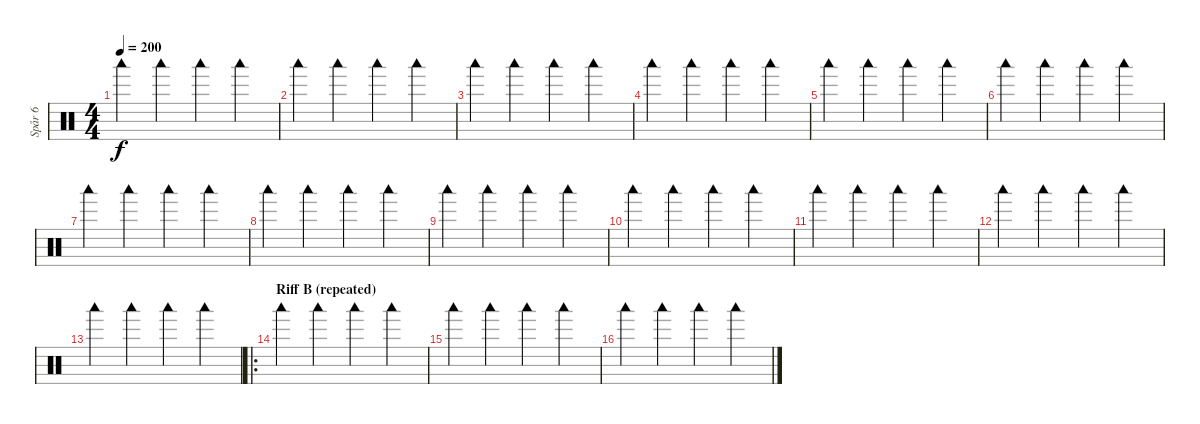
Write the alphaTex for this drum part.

\track ("Spår 6" "Spår 6") {instrument percussion}
\staff {score}
\articulation defaults
\ts (4 4)
\tempo 200
\clef neutral
\ks c "Woodblock low (hit)".4{dy f} "Woodblock low (hit)".4 "Woodblock low (hit)".4 "Woodblock low (hit)".4
|
"Woodblock low (hit)".4 "Woodblock low (hit)".4 "Woodblock low (hit)".4 "Woodblock low (hit)".4 |
"Woodblock low (hit)".4 "Woodblock low (hit)".4 "Woodblock low (hit)".4 "Woodblock low (hit)".4 |
"Woodblock low (hit)".4 "Woodblock low (hit)".4 "Woodblock low (hit)".4 "Woodblock low (hit)".4 |
"Woodblock low (hit)".4 "Woodblock low (hit)".4 "Woodblock low (hit)".4 "Woodblock low (hit)".4 |
"Woodblock low (hit)".4 "Woodblock low (hit)".4 "Woodblock low (hit)".4 "Woodblock low (hit)".4 |
"Woodblock low (hit)".4 "Woodblock low (hit)".4 "Woodblock low (hit)".4 "Woodblock low (hit)".4 |
"Woodblock low (hit)".4 "Woodblock low (hit)".4 "Woodblock low (hit)".4 "Woodblock low (hit)".4 |
"Woodblock low (hit)".4 "Woodblock low (hit)".4 "Woodblock low (hit)".4 "Woodblock low (hit)".4 |
"Woodblock low (hit)".4 "Woodblock low (hit)".4 "Woodblock low (hit)".4 "Woodblock low (hit)".4 |
"Woodblock low (hit)".4 "Woodblock low (hit)".4 "Woodblock low (hit)".4 "Woodblock low (hit)".4 |
"Woodblock low (hit)".4 "Woodblock low (hit)".4 "Woodblock low (hit)".4 "Woodblock low (hit)".4 |
"Woodblock low (hit)".4 "Woodblock low (hit)".4 "Woodblock low (hit)".4 "Woodblock low (hit)".4 |
\ro
\section ("" "Riff B (repeated)")
"Woodblock low (hit)".4 "Woodblock low (hit)".4 "Woodblock low (hit)".4 "Woodblock low (hit)".4 |
"Woodblock low (hit)".4 "Woodblock low (hit)".4 "Woodblock low (hit)".4 "Woodblock low (hit)".4 |
"Woodblock low (hit)".4 "Woodblock low (hit)".4 "Woodblock low (hit)".4 "Woodblock low (hit)".4
